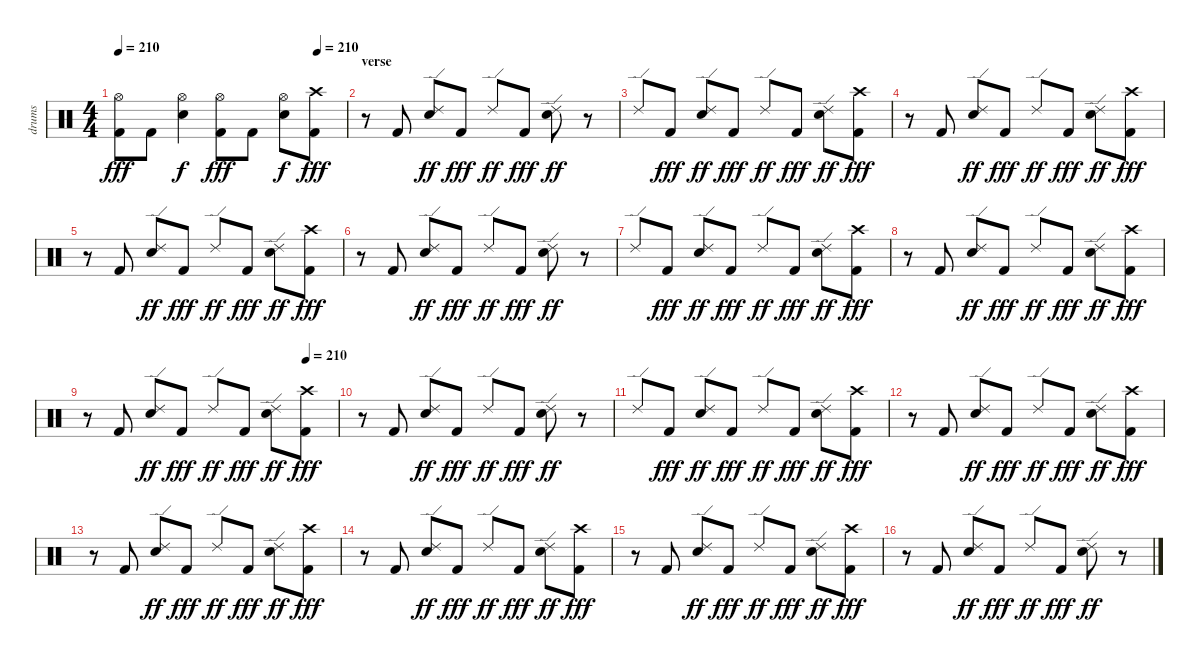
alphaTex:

\track ("drums" "drums") {instrument percussion}
\staff {score}
\articulation defaults
\ts (4 4)
\tempo 210
\tempo (210 0.875)
\clef neutral
\ks c
("Hi-Hat (open)" "Kick (hit) 2").8{dy fff} "Kick (hit) 2".8 ("Hi-Hat (open)" "Snare (hit) 2").4{dy f} ("Hi-Hat (open)" "Kick (hit) 2").8{dy fff} "Kick (hit) 2".8 ("Hi-Hat (open)" "Snare (hit) 2").8{dy f} ("Crash high (hit)" "Kick (hit) 2").8{dy fff} |
\section ("" "verse")
r.8 "Kick (hit) 2".8 ("Ride (edge) 2" "Snare (hit) 2").8{dy ff} "Kick (hit) 2".8{dy fff} "Ride (edge) 2".8{dy ff} "Kick (hit) 2".8{dy fff} ("Ride (edge) 2" "Snare (hit) 2").8{dy ff} r.8 |
"Ride (edge) 2".8 "Kick (hit) 2".8{dy fff} ("Ride (edge) 2" "Snare (hit) 2").8{dy ff} "Kick (hit) 2".8{dy fff} "Ride (edge) 2".8{dy ff} "Kick (hit) 2".8{dy fff} ("Ride (edge) 2" "Snare (hit) 2").8{dy ff} ("Crash high (hit)" "Kick (hit) 2").8{dy fff} |
r.8 "Kick (hit) 2".8 ("Ride (edge) 2" "Snare (hit) 2").8{dy ff} "Kick (hit) 2".8{dy fff} "Ride (edge) 2".8{dy ff} "Kick (hit) 2".8{dy fff} ("Ride (edge) 2" "Snare (hit) 2").8{dy ff} ("Crash high (hit)" "Kick (hit) 2").8{dy fff} |
r.8 "Kick (hit) 2".8 ("Ride (edge) 2" "Snare (hit) 2").8{dy ff} "Kick (hit) 2".8{dy fff} "Ride (edge) 2".8{dy ff} "Kick (hit) 2".8{dy fff} ("Ride (edge) 2" "Snare (hit) 2").8{dy ff} ("Crash high (hit)" "Kick (hit) 2").8{dy fff} |
r.8 "Kick (hit) 2".8 ("Ride (edge) 2" "Snare (hit) 2").8{dy ff} "Kick (hit) 2".8{dy fff} "Ride (edge) 2".8{dy ff} "Kick (hit) 2".8{dy fff} ("Ride (edge) 2" "Snare (hit) 2").8{dy ff} r.8 |
"Ride (edge) 2".8 "Kick (hit) 2".8{dy fff} ("Ride (edge) 2" "Snare (hit) 2").8{dy ff} "Kick (hit) 2".8{dy fff} "Ride (edge) 2".8{dy ff} "Kick (hit) 2".8{dy fff} ("Ride (edge) 2" "Snare (hit) 2").8{dy ff} ("Crash high (hit)" "Kick (hit) 2").8{dy fff} |
r.8 "Kick (hit) 2".8 ("Ride (edge) 2" "Snare (hit) 2").8{dy ff} "Kick (hit) 2".8{dy fff} "Ride (edge) 2".8{dy ff} "Kick (hit) 2".8{dy fff} ("Ride (edge) 2" "Snare (hit) 2").8{dy ff} ("Crash high (hit)" "Kick (hit) 2").8{dy fff} |
\tempo (210 0.875)
r.8 "Kick (hit) 2".8 ("Ride (edge) 2" "Snare (hit) 2").8{dy ff} "Kick (hit) 2".8{dy fff} "Ride (edge) 2".8{dy ff} "Kick (hit) 2".8{dy fff} ("Ride (edge) 2" "Snare (hit) 2").8{dy ff} ("Crash high (hit)" "Kick (hit) 2").8{dy fff} |
r.8 "Kick (hit) 2".8 ("Ride (edge) 2" "Snare (hit) 2").8{dy ff} "Kick (hit) 2".8{dy fff} "Ride (edge) 2".8{dy ff} "Kick (hit) 2".8{dy fff} ("Ride (edge) 2" "Snare (hit) 2").8{dy ff} r.8 |
"Ride (edge) 2".8 "Kick (hit) 2".8{dy fff} ("Ride (edge) 2" "Snare (hit) 2").8{dy ff} "Kick (hit) 2".8{dy fff} "Ride (edge) 2".8{dy ff} "Kick (hit) 2".8{dy fff} ("Ride (edge) 2" "Snare (hit) 2").8{dy ff} ("Crash high (hit)" "Kick (hit) 2").8{dy fff} |
r.8 "Kick (hit) 2".8 ("Ride (edge) 2" "Snare (hit) 2").8{dy ff} "Kick (hit) 2".8{dy fff} "Ride (edge) 2".8{dy ff} "Kick (hit) 2".8{dy fff} ("Ride (edge) 2" "Snare (hit) 2").8{dy ff} ("Crash high (hit)" "Kick (hit) 2").8{dy fff} |
r.8 "Kick (hit) 2".8 ("Ride (edge) 2" "Snare (hit) 2").8{dy ff} "Kick (hit) 2".8{dy fff} "Ride (edge) 2".8{dy ff} "Kick (hit) 2".8{dy fff} ("Ride (edge) 2" "Snare (hit) 2").8{dy ff} ("Crash high (hit)" "Kick (hit) 2").8{dy fff} |
r.8 "Kick (hit) 2".8 ("Ride (edge) 2" "Snare (hit) 2").8{dy ff} "Kick (hit) 2".8{dy fff} "Ride (edge) 2".8{dy ff} "Kick (hit) 2".8{dy fff} ("Ride (edge) 2" "Snare (hit) 2").8{dy ff} ("Crash high (hit)" "Kick (hit) 2").8{dy fff} |
r.8 "Kick (hit) 2".8 ("Ride (edge) 2" "Snare (hit) 2").8{dy ff} "Kick (hit) 2".8{dy fff} "Ride (edge) 2".8{dy ff} "Kick (hit) 2".8{dy fff} ("Ride (edge) 2" "Snare (hit) 2").8{dy ff} ("Crash high (hit)" "Kick (hit) 2").8{dy fff} |
r.8 "Kick (hit) 2".8 ("Ride (edge) 2" "Snare (hit) 2").8{dy ff} "Kick (hit) 2".8{dy fff} "Ride (edge) 2".8{dy ff} "Kick (hit) 2".8{dy fff} ("Ride (edge) 2" "Snare (hit) 2").8{dy ff} r.8
